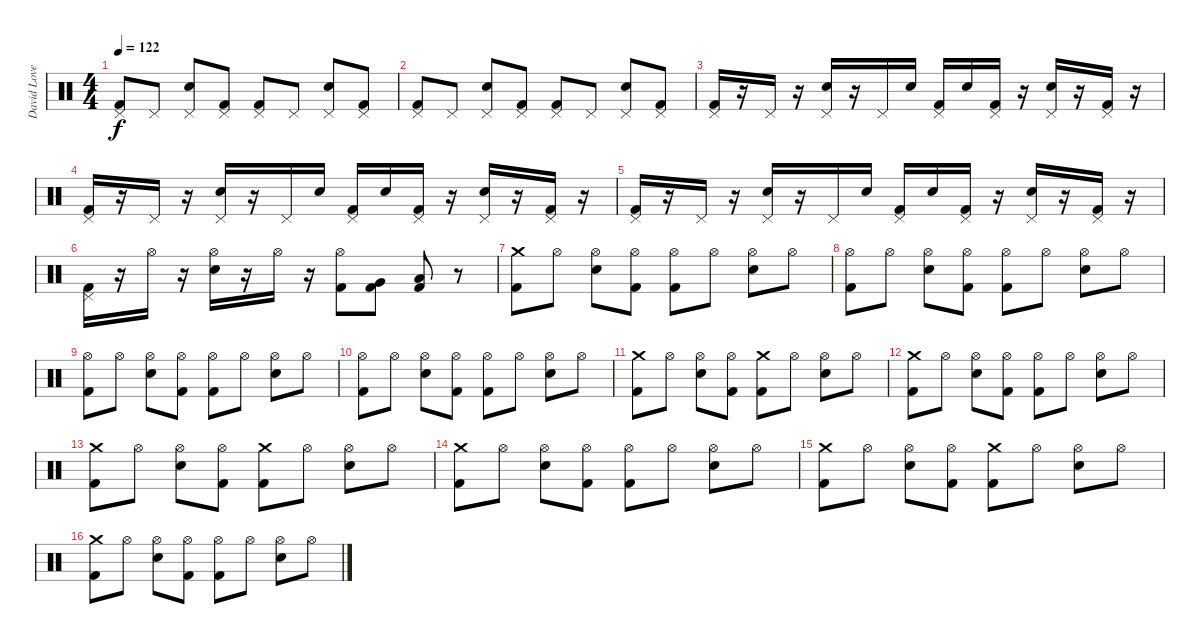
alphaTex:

\track ("David Lovering" "David Love") {instrument percussion}
\staff {score}
\articulation defaults
\ts (4 4)
\tempo 122
\clef neutral
\ks c
("Pedal Hi-Hat (hit)" "Kick (hit) 2").8{dy f} "Pedal Hi-Hat (hit)".8 ("Pedal Hi-Hat (hit)" "Electric Snare (hit)").8 ("Pedal Hi-Hat (hit)" "Kick (hit) 2").8 ("Pedal Hi-Hat (hit)" "Kick (hit) 2").8 "Pedal Hi-Hat (hit)".8 ("Pedal Hi-Hat (hit)" "Electric Snare (hit)").8 ("Pedal Hi-Hat (hit)" "Kick (hit) 2").8 |
("Pedal Hi-Hat (hit)" "Kick (hit) 2").8 "Pedal Hi-Hat (hit)".8 ("Pedal Hi-Hat (hit)" "Electric Snare (hit)").8 ("Pedal Hi-Hat (hit)" "Kick (hit) 2").8 ("Pedal Hi-Hat (hit)" "Kick (hit) 2").8 "Pedal Hi-Hat (hit)".8 ("Pedal Hi-Hat (hit)" "Electric Snare (hit)").8 ("Pedal Hi-Hat (hit)" "Kick (hit) 2").8 |
("Pedal Hi-Hat (hit)" "Kick (hit) 2").16 r.16 "Pedal Hi-Hat (hit)".16 r.16 ("Pedal Hi-Hat (hit)" "Electric Snare (hit)").16 r.16 "Pedal Hi-Hat (hit)".16 "Electric Snare (hit)".16 ("Pedal Hi-Hat (hit)" "Kick (hit) 2").16 "Electric Snare (hit)".16 ("Pedal Hi-Hat (hit)" "Kick (hit) 2").16 r.16 ("Pedal Hi-Hat (hit)" "Electric Snare (hit)").16 r.16 ("Pedal Hi-Hat (hit)" "Kick (hit) 2").16 r.16 |
("Pedal Hi-Hat (hit)" "Kick (hit) 2").16 r.16 "Pedal Hi-Hat (hit)".16 r.16 ("Pedal Hi-Hat (hit)" "Electric Snare (hit)").16 r.16 "Pedal Hi-Hat (hit)".16 "Electric Snare (hit)".16 ("Pedal Hi-Hat (hit)" "Kick (hit) 2").16 "Electric Snare (hit)".16 ("Pedal Hi-Hat (hit)" "Kick (hit) 2").16 r.16 ("Pedal Hi-Hat (hit)" "Electric Snare (hit)").16 r.16 ("Pedal Hi-Hat (hit)" "Kick (hit) 2").16 r.16 |
("Pedal Hi-Hat (hit)" "Kick (hit) 2").16 r.16 "Pedal Hi-Hat (hit)".16 r.16 ("Pedal Hi-Hat (hit)" "Electric Snare (hit)").16 r.16 "Pedal Hi-Hat (hit)".16 "Electric Snare (hit)".16 ("Pedal Hi-Hat (hit)" "Kick (hit) 2").16 "Electric Snare (hit)".16 ("Pedal Hi-Hat (hit)" "Kick (hit) 2").16 r.16 ("Pedal Hi-Hat (hit)" "Electric Snare (hit)").16 r.16 ("Pedal Hi-Hat (hit)" "Kick (hit) 2").16 r.16 |
("Pedal Hi-Hat (hit)" "Kick (hit) 2").16 r.16 "Hi-Hat (open)".16 r.16 ("Hi-Hat (open)" "Electric Snare (hit)").16 r.16 "Hi-Hat (open)".16 r.16 ("Hi-Hat (open)" "Kick (hit) 2").8 ("Very Low Tom (hit)" "Kick (hit) 2").8 ("Low Floor Tom (hit)" "Kick (hit) 2").8 r.8 |
("Crash medium (hit)" "Kick (hit) 2").8{volume 15} "Hi-Hat (open)".8 ("Hi-Hat (open)" "Electric Snare (hit)").8 ("Hi-Hat (open)" "Kick (hit) 2").8 ("Hi-Hat (open)" "Kick (hit) 2").8 "Hi-Hat (open)".8 ("Hi-Hat (open)" "Electric Snare (hit)").8 "Hi-Hat (open)".8 |
("Hi-Hat (open)" "Kick (hit) 2").8 "Hi-Hat (open)".8 ("Hi-Hat (open)" "Electric Snare (hit)").8 ("Hi-Hat (open)" "Kick (hit) 2").8 ("Hi-Hat (open)" "Kick (hit) 2").8 "Hi-Hat (open)".8 ("Hi-Hat (open)" "Electric Snare (hit)").8 "Hi-Hat (open)".8 |
("Hi-Hat (open)" "Kick (hit) 2").8 "Hi-Hat (open)".8 ("Hi-Hat (open)" "Electric Snare (hit)").8 ("Hi-Hat (open)" "Kick (hit) 2").8 ("Hi-Hat (open)" "Kick (hit) 2").8 "Hi-Hat (open)".8 ("Hi-Hat (open)" "Electric Snare (hit)").8 "Hi-Hat (open)".8 |
("Hi-Hat (open)" "Kick (hit) 2").8 "Hi-Hat (open)".8 ("Hi-Hat (open)" "Electric Snare (hit)").8 ("Hi-Hat (open)" "Kick (hit) 2").8 ("Hi-Hat (open)" "Kick (hit) 2").8 "Hi-Hat (open)".8 ("Hi-Hat (open)" "Electric Snare (hit)").8 "Hi-Hat (open)".8 |
("Crash medium (hit)" "Kick (hit) 2").8 "Hi-Hat (open)".8 ("Hi-Hat (open)" "Electric Snare (hit)").8 ("Hi-Hat (open)" "Kick (hit) 2").8 ("Crash medium (hit)" "Kick (hit) 2").8 "Hi-Hat (open)".8 ("Hi-Hat (open)" "Electric Snare (hit)").8 "Hi-Hat (open)".8 |
("Crash medium (hit)" "Kick (hit) 2").8 "Hi-Hat (open)".8 ("Hi-Hat (open)" "Electric Snare (hit)").8 ("Hi-Hat (open)" "Kick (hit) 2").8 ("Hi-Hat (open)" "Kick (hit) 2").8 "Hi-Hat (open)".8 ("Hi-Hat (open)" "Electric Snare (hit)").8 "Hi-Hat (open)".8 |
("Crash medium (hit)" "Kick (hit) 2").8 "Hi-Hat (open)".8 ("Hi-Hat (open)" "Electric Snare (hit)").8 ("Hi-Hat (open)" "Kick (hit) 2").8 ("Crash medium (hit)" "Kick (hit) 2").8 "Hi-Hat (open)".8 ("Hi-Hat (open)" "Electric Snare (hit)").8 "Hi-Hat (open)".8 |
("Crash medium (hit)" "Kick (hit) 2").8 "Hi-Hat (open)".8 ("Hi-Hat (open)" "Electric Snare (hit)").8 ("Hi-Hat (open)" "Kick (hit) 2").8 ("Hi-Hat (open)" "Kick (hit) 2").8 "Hi-Hat (open)".8 ("Hi-Hat (open)" "Electric Snare (hit)").8 "Hi-Hat (open)".8 |
("Crash medium (hit)" "Kick (hit) 2").8 "Hi-Hat (open)".8 ("Hi-Hat (open)" "Electric Snare (hit)").8 ("Hi-Hat (open)" "Kick (hit) 2").8 ("Crash medium (hit)" "Kick (hit) 2").8 "Hi-Hat (open)".8 ("Hi-Hat (open)" "Electric Snare (hit)").8 "Hi-Hat (open)".8 |
("Crash medium (hit)" "Kick (hit) 2").8 "Hi-Hat (open)".8 ("Hi-Hat (open)" "Electric Snare (hit)").8 ("Hi-Hat (open)" "Kick (hit) 2").8 ("Hi-Hat (open)" "Kick (hit) 2").8 "Hi-Hat (open)".8 ("Hi-Hat (open)" "Electric Snare (hit)").8 "Hi-Hat (open)".8
